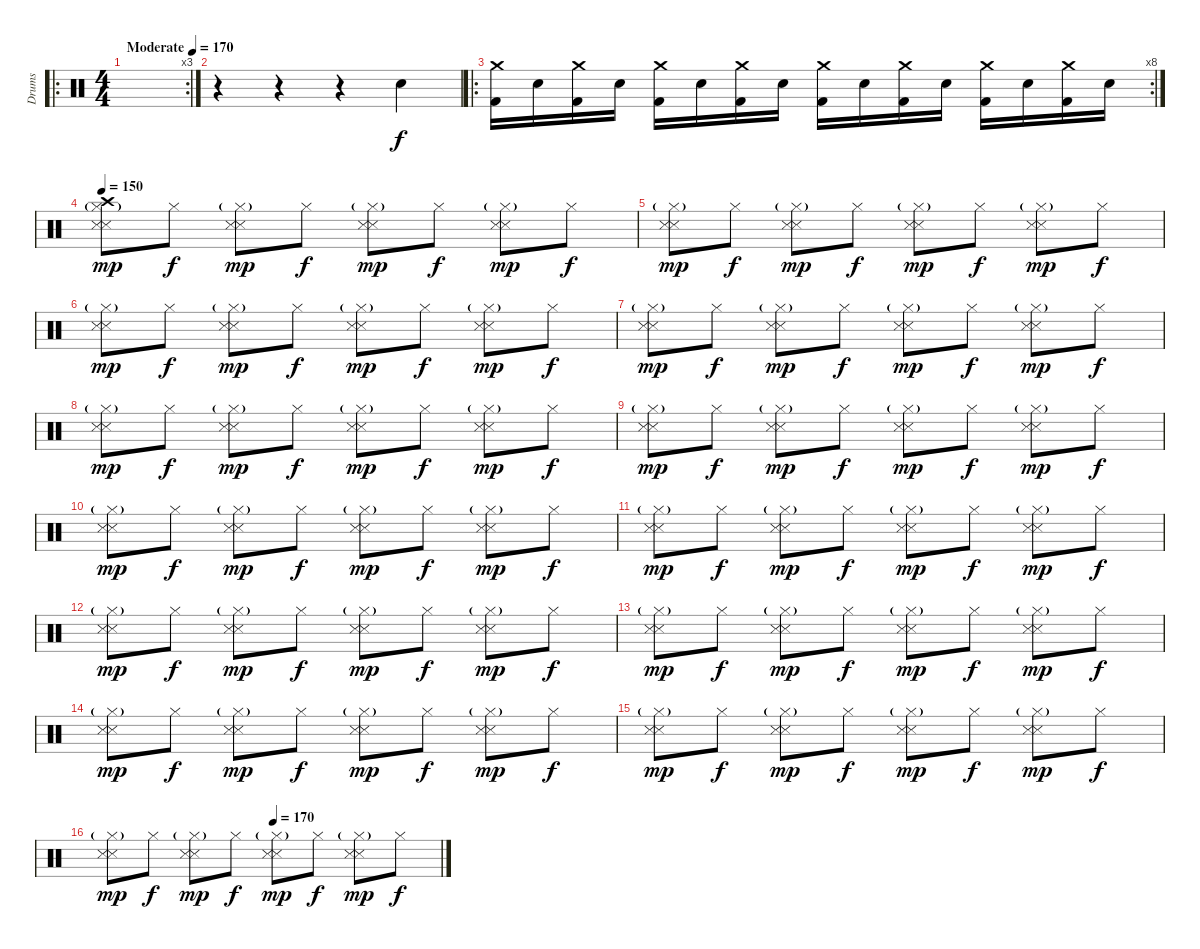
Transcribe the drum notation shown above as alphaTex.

\track ("Drums" "Drums") {instrument percussion}
\staff {score}
\articulation defaults
\ro
\rc 3
\ts (4 4)
\tempo (170 "Moderate")
\clef neutral
\ks c
|
r.4 r.4 r.4 "Electric Snare (hit)".4 |
\ro
\rc 8
("Crash medium (hit)" "Kick (hit) 2").16 "Electric Snare (hit)".16 ("Crash medium (hit)" "Kick (hit) 2").16 "Electric Snare (hit)".16 ("Crash medium (hit)" "Kick (hit) 2").16 "Electric Snare (hit)".16 ("Crash medium (hit)" "Kick (hit) 2").16 "Electric Snare (hit)".16 ("Crash medium (hit)" "Kick (hit) 2").16 "Electric Snare (hit)".16 ("Crash medium (hit)" "Kick (hit) 2").16 "Electric Snare (hit)".16 ("Crash medium (hit)" "Kick (hit) 2").16 "Electric Snare (hit)".16 ("Crash medium (hit)" "Kick (hit) 2").16 "Electric Snare (hit)".16 |
\tempo 150
("Crash high (hit)" "Hi-Hat (closed)"{g} "Snare (side stick) 3" "Snare (side stick) 3").8{dy mp} "Hi-Hat (closed)".8{dy f} ("Hi-Hat (closed)"{g} "Snare (side stick) 3" "Snare (side stick) 3").8{dy mp} "Hi-Hat (closed)".8{dy f} ("Hi-Hat (closed)"{g} "Snare (side stick) 3" "Snare (side stick) 3").8{dy mp} "Hi-Hat (closed)".8{dy f} ("Hi-Hat (closed)"{g} "Snare (side stick) 3" "Snare (side stick) 3").8{dy mp} "Hi-Hat (closed)".8{dy f} |
("Hi-Hat (closed)"{g} "Snare (side stick) 3" "Snare (side stick) 3").8{dy mp} "Hi-Hat (closed)".8{dy f} ("Hi-Hat (closed)"{g} "Snare (side stick) 3" "Snare (side stick) 3").8{dy mp} "Hi-Hat (closed)".8{dy f} ("Hi-Hat (closed)"{g} "Snare (side stick) 3" "Snare (side stick) 3").8{dy mp} "Hi-Hat (closed)".8{dy f} ("Hi-Hat (closed)"{g} "Snare (side stick) 3" "Snare (side stick) 3").8{dy mp} "Hi-Hat (closed)".8{dy f} |
("Hi-Hat (closed)"{g} "Snare (side stick) 3" "Snare (side stick) 3").8{dy mp} "Hi-Hat (closed)".8{dy f} ("Hi-Hat (closed)"{g} "Snare (side stick) 3" "Snare (side stick) 3").8{dy mp} "Hi-Hat (closed)".8{dy f} ("Hi-Hat (closed)"{g} "Snare (side stick) 3" "Snare (side stick) 3").8{dy mp} "Hi-Hat (closed)".8{dy f} ("Hi-Hat (closed)"{g} "Snare (side stick) 3" "Snare (side stick) 3").8{dy mp} "Hi-Hat (closed)".8{dy f} |
("Hi-Hat (closed)"{g} "Snare (side stick) 3" "Snare (side stick) 3").8{dy mp} "Hi-Hat (closed)".8{dy f} ("Hi-Hat (closed)"{g} "Snare (side stick) 3" "Snare (side stick) 3").8{dy mp} "Hi-Hat (closed)".8{dy f} ("Hi-Hat (closed)"{g} "Snare (side stick) 3" "Snare (side stick) 3").8{dy mp} "Hi-Hat (closed)".8{dy f} ("Hi-Hat (closed)"{g} "Snare (side stick) 3" "Snare (side stick) 3").8{dy mp} "Hi-Hat (closed)".8{dy f} |
("Hi-Hat (closed)"{g} "Snare (side stick) 3" "Snare (side stick) 3").8{dy mp} "Hi-Hat (closed)".8{dy f} ("Hi-Hat (closed)"{g} "Snare (side stick) 3" "Snare (side stick) 3").8{dy mp} "Hi-Hat (closed)".8{dy f} ("Hi-Hat (closed)"{g} "Snare (side stick) 3" "Snare (side stick) 3").8{dy mp} "Hi-Hat (closed)".8{dy f} ("Hi-Hat (closed)"{g} "Snare (side stick) 3" "Snare (side stick) 3").8{dy mp} "Hi-Hat (closed)".8{dy f} |
("Hi-Hat (closed)"{g} "Snare (side stick) 3" "Snare (side stick) 3").8{dy mp} "Hi-Hat (closed)".8{dy f} ("Hi-Hat (closed)"{g} "Snare (side stick) 3" "Snare (side stick) 3").8{dy mp} "Hi-Hat (closed)".8{dy f} ("Hi-Hat (closed)"{g} "Snare (side stick) 3" "Snare (side stick) 3").8{dy mp} "Hi-Hat (closed)".8{dy f} ("Hi-Hat (closed)"{g} "Snare (side stick) 3" "Snare (side stick) 3").8{dy mp} "Hi-Hat (closed)".8{dy f} |
("Hi-Hat (closed)"{g} "Snare (side stick) 3" "Snare (side stick) 3").8{dy mp} "Hi-Hat (closed)".8{dy f} ("Hi-Hat (closed)"{g} "Snare (side stick) 3" "Snare (side stick) 3").8{dy mp} "Hi-Hat (closed)".8{dy f} ("Hi-Hat (closed)"{g} "Snare (side stick) 3" "Snare (side stick) 3").8{dy mp} "Hi-Hat (closed)".8{dy f} ("Hi-Hat (closed)"{g} "Snare (side stick) 3" "Snare (side stick) 3").8{dy mp} "Hi-Hat (closed)".8{dy f} |
("Hi-Hat (closed)"{g} "Snare (side stick) 3" "Snare (side stick) 3").8{dy mp} "Hi-Hat (closed)".8{dy f} ("Hi-Hat (closed)"{g} "Snare (side stick) 3" "Snare (side stick) 3").8{dy mp} "Hi-Hat (closed)".8{dy f} ("Hi-Hat (closed)"{g} "Snare (side stick) 3" "Snare (side stick) 3").8{dy mp} "Hi-Hat (closed)".8{dy f} ("Hi-Hat (closed)"{g} "Snare (side stick) 3" "Snare (side stick) 3").8{dy mp} "Hi-Hat (closed)".8{dy f} |
("Hi-Hat (closed)"{g} "Snare (side stick) 3" "Snare (side stick) 3").8{dy mp} "Hi-Hat (closed)".8{dy f} ("Hi-Hat (closed)"{g} "Snare (side stick) 3" "Snare (side stick) 3").8{dy mp} "Hi-Hat (closed)".8{dy f} ("Hi-Hat (closed)"{g} "Snare (side stick) 3" "Snare (side stick) 3").8{dy mp} "Hi-Hat (closed)".8{dy f} ("Hi-Hat (closed)"{g} "Snare (side stick) 3" "Snare (side stick) 3").8{dy mp} "Hi-Hat (closed)".8{dy f} |
("Hi-Hat (closed)"{g} "Snare (side stick) 3" "Snare (side stick) 3").8{dy mp} "Hi-Hat (closed)".8{dy f} ("Hi-Hat (closed)"{g} "Snare (side stick) 3" "Snare (side stick) 3").8{dy mp} "Hi-Hat (closed)".8{dy f} ("Hi-Hat (closed)"{g} "Snare (side stick) 3" "Snare (side stick) 3").8{dy mp} "Hi-Hat (closed)".8{dy f} ("Hi-Hat (closed)"{g} "Snare (side stick) 3" "Snare (side stick) 3").8{dy mp} "Hi-Hat (closed)".8{dy f} |
("Hi-Hat (closed)"{g} "Snare (side stick) 3" "Snare (side stick) 3").8{dy mp} "Hi-Hat (closed)".8{dy f} ("Hi-Hat (closed)"{g} "Snare (side stick) 3" "Snare (side stick) 3").8{dy mp} "Hi-Hat (closed)".8{dy f} ("Hi-Hat (closed)"{g} "Snare (side stick) 3" "Snare (side stick) 3").8{dy mp} "Hi-Hat (closed)".8{dy f} ("Hi-Hat (closed)"{g} "Snare (side stick) 3" "Snare (side stick) 3").8{dy mp} "Hi-Hat (closed)".8{dy f} |
("Hi-Hat (closed)"{g} "Snare (side stick) 3" "Snare (side stick) 3").8{dy mp} "Hi-Hat (closed)".8{dy f} ("Hi-Hat (closed)"{g} "Snare (side stick) 3" "Snare (side stick) 3").8{dy mp} "Hi-Hat (closed)".8{dy f} ("Hi-Hat (closed)"{g} "Snare (side stick) 3" "Snare (side stick) 3").8{dy mp} "Hi-Hat (closed)".8{dy f} ("Hi-Hat (closed)"{g} "Snare (side stick) 3" "Snare (side stick) 3").8{dy mp} "Hi-Hat (closed)".8{dy f} |
\tempo (170 0.5)
("Hi-Hat (closed)"{g} "Snare (side stick) 3" "Snare (side stick) 3").8{dy mp} "Hi-Hat (closed)".8{dy f} ("Hi-Hat (closed)"{g} "Snare (side stick) 3" "Snare (side stick) 3").8{dy mp} "Hi-Hat (closed)".8{dy f} ("Hi-Hat (closed)"{g} "Snare (side stick) 3" "Snare (side stick) 3").8{dy mp} "Hi-Hat (closed)".8{dy f} ("Hi-Hat (closed)"{g} "Snare (side stick) 3" "Snare (side stick) 3").8{dy mp} "Hi-Hat (closed)".8{dy f}
